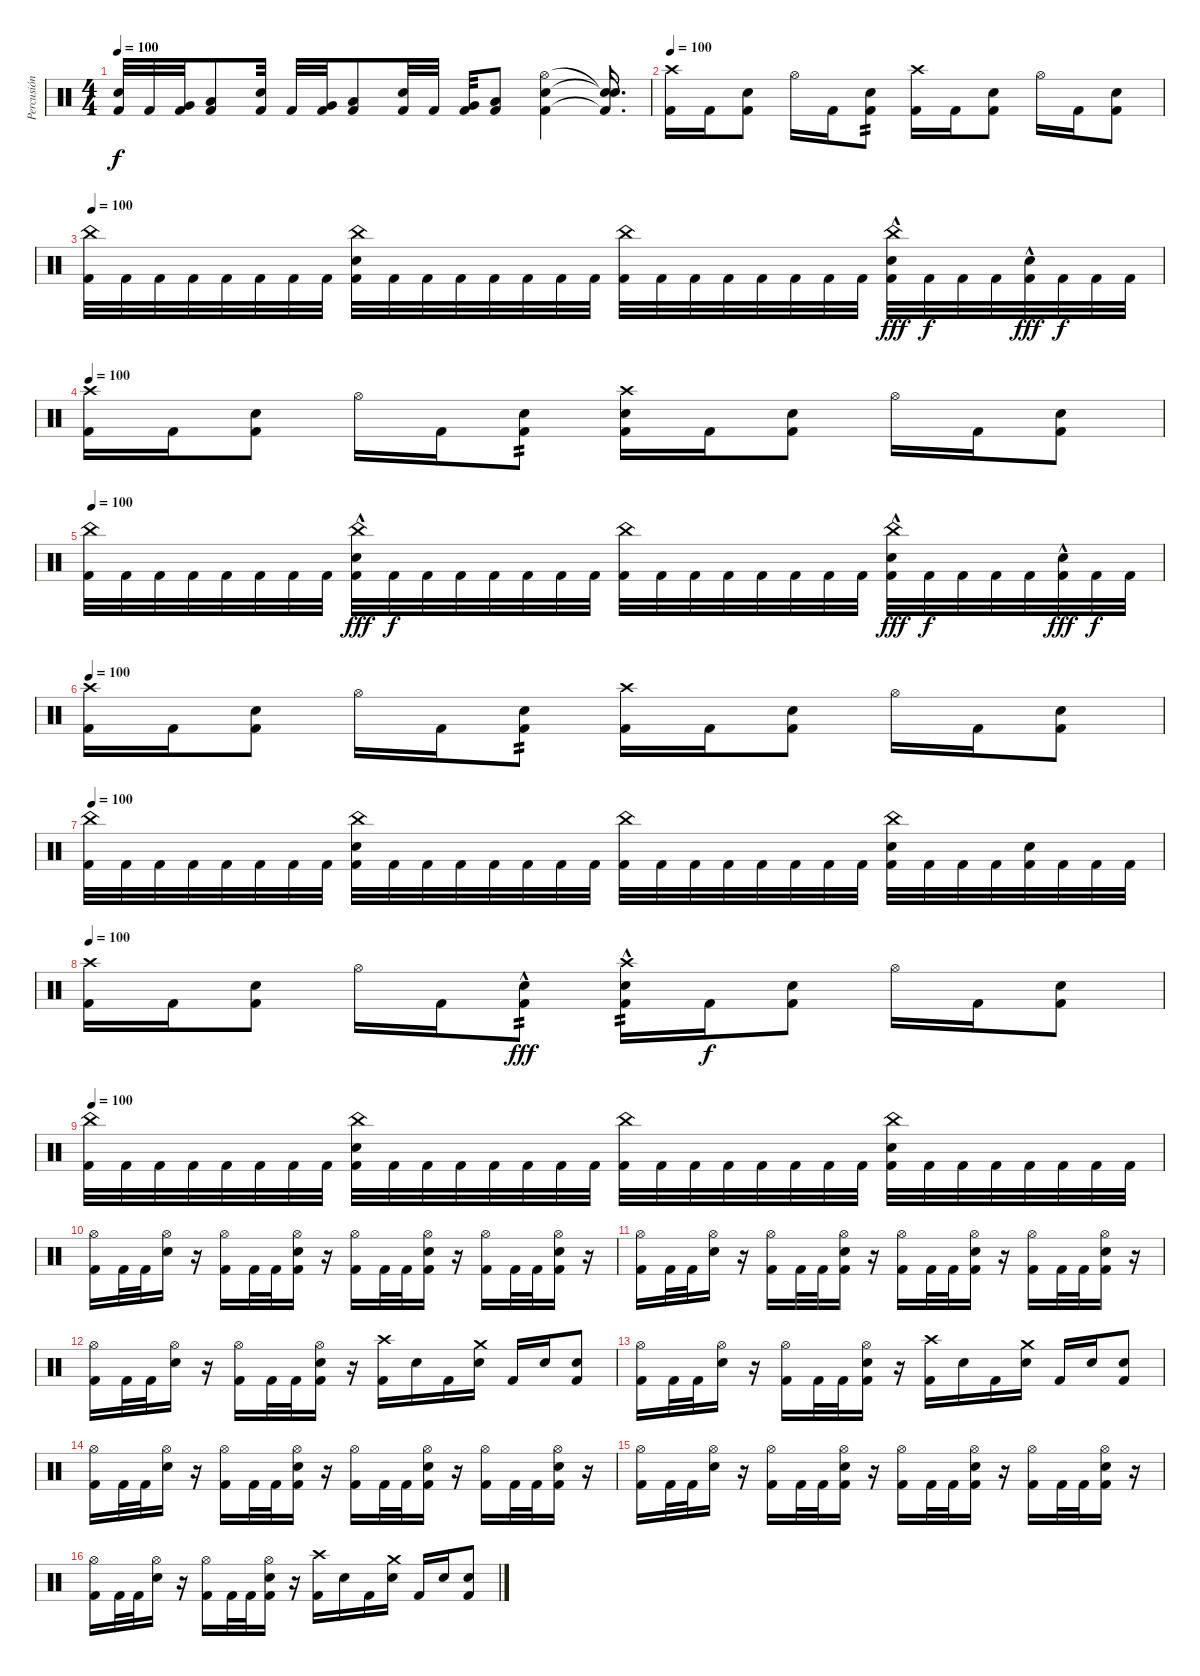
\track ("Percusión" "Percusión") {instrument percussion}
\staff {score}
\articulation defaults
\ts (4 4)
\tempo 100
\clef neutral
\ks c
("Electric Snare (hit)" "Kick (hit) 2").32{dy f} "Kick (hit) 2".32 ("Very Low Tom (hit)" "Kick (hit) 2").32 ("Low Floor Tom (hit)" "Kick (hit) 2").8 ("Electric Snare (hit)" "Kick (hit) 2").32 "Kick (hit) 2".32 ("Very Low Tom (hit)" "Kick (hit) 2").32 ("Low Floor Tom (hit)" "Kick (hit) 2").8 ("Electric Snare (hit)" "Kick (hit) 2").32 "Kick (hit) 2".32 ("Very Low Tom (hit)" "Kick (hit) 2").32 ("Low Floor Tom (hit)" "Kick (hit) 2").8 ("Hi-Hat (open)" "Electric Snare (hit)" "Kick (hit) 2").4 ("Snare (hit)"{t} "Snare (hit)"{t} "Kick (hit) 2"{t}).16{d} |
\tempo 100
("Crash high (hit)" "Kick (hit) 2").16 "Kick (hit) 2".16 ("Electric Snare (hit)" "Kick (hit) 2").8 "Hi-Hat (open)".16 "Kick (hit) 2".16 ("Electric Snare (hit)" "Kick (hit) 2").8{tp 2} ("Crash high (hit)" "Kick (hit) 2").16 "Kick (hit) 2".16 ("Electric Snare (hit)" "Kick (hit) 2").8 "Hi-Hat (open)".16 "Kick (hit) 2".16 ("Electric Snare (hit)" "Kick (hit) 2").8 |
\tempo 100
("China (hit)" "Kick (hit) 2").32 "Kick (hit) 2".32 "Kick (hit) 2".32 "Kick (hit) 2".32 "Kick (hit) 2".32 "Kick (hit) 2".32 "Kick (hit) 2".32 "Kick (hit) 2".32 ("China (hit)" "Electric Snare (hit)" "Kick (hit) 2").32 "Kick (hit) 2".32 "Kick (hit) 2".32 "Kick (hit) 2".32 "Kick (hit) 2".32 "Kick (hit) 2".32 "Kick (hit) 2".32 "Kick (hit) 2".32 ("China (hit)" "Kick (hit) 2").32 "Kick (hit) 2".32 "Kick (hit) 2".32 "Kick (hit) 2".32 "Kick (hit) 2".32 "Kick (hit) 2".32 "Kick (hit) 2".32 "Kick (hit) 2".32 ("China (hit)" "Electric Snare (hit)"{hac} "Kick (hit) 2").32{dy fff} "Kick (hit) 2".32{dy f} "Kick (hit) 2".32 "Kick (hit) 2".32 ("Electric Snare (hit)"{hac} "Kick (hit) 2").32{dy fff} "Kick (hit) 2".32{dy f} "Kick (hit) 2".32 "Kick (hit) 2".32 |
\tempo 100
("Crash high (hit)" "Kick (hit) 2").16 "Kick (hit) 2".16 ("Electric Snare (hit)" "Kick (hit) 2").8 "Hi-Hat (open)".16 "Kick (hit) 2".16 ("Electric Snare (hit)" "Kick (hit) 2").8{tp 2} ("Crash high (hit)" "Electric Snare (hit)" "Kick (hit) 2").16 "Kick (hit) 2".16 ("Electric Snare (hit)" "Kick (hit) 2").8 "Hi-Hat (open)".16 "Kick (hit) 2".16 ("Electric Snare (hit)" "Kick (hit) 2").8 |
\tempo 100
("China (hit)" "Kick (hit) 2").32 "Kick (hit) 2".32 "Kick (hit) 2".32 "Kick (hit) 2".32 "Kick (hit) 2".32 "Kick (hit) 2".32 "Kick (hit) 2".32 "Kick (hit) 2".32 ("China (hit)" "Electric Snare (hit)"{hac} "Kick (hit) 2").32{dy fff} "Kick (hit) 2".32{dy f} "Kick (hit) 2".32 "Kick (hit) 2".32 "Kick (hit) 2".32 "Kick (hit) 2".32 "Kick (hit) 2".32 "Kick (hit) 2".32 ("China (hit)" "Kick (hit) 2").32 "Kick (hit) 2".32 "Kick (hit) 2".32 "Kick (hit) 2".32 "Kick (hit) 2".32 "Kick (hit) 2".32 "Kick (hit) 2".32 "Kick (hit) 2".32 ("China (hit)" "Electric Snare (hit)"{hac} "Kick (hit) 2").32{dy fff} "Kick (hit) 2".32{dy f} "Kick (hit) 2".32 "Kick (hit) 2".32 "Kick (hit) 2".32 ("Electric Snare (hit)"{hac} "Kick (hit) 2").32{dy fff} "Kick (hit) 2".32{dy f} "Kick (hit) 2".32 |
\tempo 100
("Crash high (hit)" "Kick (hit) 2").16 "Kick (hit) 2".16 ("Electric Snare (hit)" "Kick (hit) 2").8 "Hi-Hat (open)".16 "Kick (hit) 2".16 ("Electric Snare (hit)" "Kick (hit) 2").8{tp 2} ("Crash high (hit)" "Kick (hit) 2").16 "Kick (hit) 2".16 ("Electric Snare (hit)" "Kick (hit) 2").8 "Hi-Hat (open)".16 "Kick (hit) 2".16 ("Electric Snare (hit)" "Kick (hit) 2").8 |
\tempo 100
("China (hit)" "Kick (hit) 2").32 "Kick (hit) 2".32 "Kick (hit) 2".32 "Kick (hit) 2".32 "Kick (hit) 2".32 "Kick (hit) 2".32 "Kick (hit) 2".32 "Kick (hit) 2".32 ("China (hit)" "Electric Snare (hit)" "Kick (hit) 2").32 "Kick (hit) 2".32 "Kick (hit) 2".32 "Kick (hit) 2".32 "Kick (hit) 2".32 "Kick (hit) 2".32 "Kick (hit) 2".32 "Kick (hit) 2".32 ("China (hit)" "Kick (hit) 2").32 "Kick (hit) 2".32 "Kick (hit) 2".32 "Kick (hit) 2".32 "Kick (hit) 2".32 "Kick (hit) 2".32 "Kick (hit) 2".32 "Kick (hit) 2".32 ("China (hit)" "Electric Snare (hit)" "Kick (hit) 2").32 "Kick (hit) 2".32 "Kick (hit) 2".32 "Kick (hit) 2".32 ("Electric Snare (hit)" "Kick (hit) 2").32 "Kick (hit) 2".32 "Kick (hit) 2".32 "Kick (hit) 2".32 |
\tempo 100
("Crash high (hit)" "Kick (hit) 2").16 "Kick (hit) 2".16 ("Electric Snare (hit)" "Kick (hit) 2").8 "Hi-Hat (open)".16 "Kick (hit) 2".16 ("Electric Snare (hit)"{hac} "Kick (hit) 2").8{tp 2 dy fff} ("Crash high (hit)" "Electric Snare (hit)"{hac} "Kick (hit) 2").16{tp 2} "Kick (hit) 2".16{dy f} ("Electric Snare (hit)" "Kick (hit) 2").8 "Hi-Hat (open)".16 "Kick (hit) 2".16 ("Electric Snare (hit)" "Kick (hit) 2").8 |
\tempo 100
("China (hit)" "Kick (hit) 2").32 "Kick (hit) 2".32 "Kick (hit) 2".32 "Kick (hit) 2".32 "Kick (hit) 2".32 "Kick (hit) 2".32 "Kick (hit) 2".32 "Kick (hit) 2".32 ("China (hit)" "Electric Snare (hit)" "Kick (hit) 2").32 "Kick (hit) 2".32 "Kick (hit) 2".32 "Kick (hit) 2".32 "Kick (hit) 2".32 "Kick (hit) 2".32 "Kick (hit) 2".32 "Kick (hit) 2".32 ("China (hit)" "Kick (hit) 2").32 "Kick (hit) 2".32 "Kick (hit) 2".32 "Kick (hit) 2".32 "Kick (hit) 2".32 "Kick (hit) 2".32 "Kick (hit) 2".32 "Kick (hit) 2".32 ("China (hit)" "Electric Snare (hit)" "Kick (hit) 2").32 "Kick (hit) 2".32 "Kick (hit) 2".32 "Kick (hit) 2".32 "Kick (hit) 2".32 "Kick (hit) 2".32 "Kick (hit) 2".32 "Kick (hit) 2".32 |
("Hi-Hat (open)" "Kick (hit) 2").16 "Kick (hit) 2".32 "Kick (hit) 2".32 ("Hi-Hat (open)" "Electric Snare (hit)").16 r.16 ("Hi-Hat (open)" "Kick (hit) 2").16 "Kick (hit) 2".32 "Kick (hit) 2".32 ("Hi-Hat (open)" "Electric Snare (hit)" "Kick (hit) 2").16 r.16 ("Hi-Hat (open)" "Kick (hit) 2").16 "Kick (hit) 2".32 "Kick (hit) 2".32 ("Hi-Hat (open)" "Electric Snare (hit)" "Kick (hit) 2").16 r.16 ("Hi-Hat (open)" "Kick (hit) 2").16 "Kick (hit) 2".32 "Kick (hit) 2".32 ("Hi-Hat (open)" "Electric Snare (hit)" "Kick (hit) 2").16 r.16 |
("Hi-Hat (open)" "Kick (hit) 2").16 "Kick (hit) 2".32 "Kick (hit) 2".32 ("Hi-Hat (open)" "Electric Snare (hit)").16 r.16 ("Hi-Hat (open)" "Kick (hit) 2").16 "Kick (hit) 2".32 "Kick (hit) 2".32 ("Hi-Hat (open)" "Electric Snare (hit)" "Kick (hit) 2").16 r.16 ("Hi-Hat (open)" "Kick (hit) 2").16 "Kick (hit) 2".32 "Kick (hit) 2".32 ("Hi-Hat (open)" "Electric Snare (hit)" "Kick (hit) 2").16 r.16 ("Hi-Hat (open)" "Kick (hit) 2").16 "Kick (hit) 2".32 "Kick (hit) 2".32 ("Hi-Hat (open)" "Electric Snare (hit)" "Kick (hit) 2").16 r.16 |
("Hi-Hat (open)" "Kick (hit) 2").16 "Kick (hit) 2".32 "Kick (hit) 2".32 ("Hi-Hat (open)" "Electric Snare (hit)").16 r.16 ("Hi-Hat (open)" "Kick (hit) 2").16 "Kick (hit) 2".32 "Kick (hit) 2".32 ("Hi-Hat (open)" "Electric Snare (hit)" "Kick (hit) 2").16 r.16 ("Crash high (hit)" "Kick (hit) 2").16 "Electric Snare (hit)".16 "Kick (hit) 2".16 ("Crash medium (hit)" "Electric Snare (hit)").16 "Kick (hit) 2".16 "Electric Snare (hit)".16 ("Electric Snare (hit)" "Kick (hit) 2").8 |
("Hi-Hat (open)" "Kick (hit) 2").16 "Kick (hit) 2".32 "Kick (hit) 2".32 ("Hi-Hat (open)" "Electric Snare (hit)").16 r.16 ("Hi-Hat (open)" "Kick (hit) 2").16 "Kick (hit) 2".32 "Kick (hit) 2".32 ("Hi-Hat (open)" "Electric Snare (hit)" "Kick (hit) 2").16 r.16 ("Crash high (hit)" "Kick (hit) 2").16 "Electric Snare (hit)".16 "Kick (hit) 2".16 ("Crash medium (hit)" "Electric Snare (hit)").16 "Kick (hit) 2".16 "Electric Snare (hit)".16 ("Electric Snare (hit)" "Kick (hit) 2").8 |
("Hi-Hat (open)" "Kick (hit) 2").16 "Kick (hit) 2".32 "Kick (hit) 2".32 ("Hi-Hat (open)" "Electric Snare (hit)").16 r.16 ("Hi-Hat (open)" "Kick (hit) 2").16 "Kick (hit) 2".32 "Kick (hit) 2".32 ("Hi-Hat (open)" "Electric Snare (hit)" "Kick (hit) 2").16 r.16 ("Hi-Hat (open)" "Kick (hit) 2").16 "Kick (hit) 2".32 "Kick (hit) 2".32 ("Hi-Hat (open)" "Electric Snare (hit)" "Kick (hit) 2").16 r.16 ("Hi-Hat (open)" "Kick (hit) 2").16 "Kick (hit) 2".32 "Kick (hit) 2".32 ("Hi-Hat (open)" "Electric Snare (hit)" "Kick (hit) 2").16 r.16 |
("Hi-Hat (open)" "Kick (hit) 2").16 "Kick (hit) 2".32 "Kick (hit) 2".32 ("Hi-Hat (open)" "Electric Snare (hit)").16 r.16 ("Hi-Hat (open)" "Kick (hit) 2").16 "Kick (hit) 2".32 "Kick (hit) 2".32 ("Hi-Hat (open)" "Electric Snare (hit)" "Kick (hit) 2").16 r.16 ("Hi-Hat (open)" "Kick (hit) 2").16 "Kick (hit) 2".32 "Kick (hit) 2".32 ("Hi-Hat (open)" "Electric Snare (hit)" "Kick (hit) 2").16 r.16 ("Hi-Hat (open)" "Kick (hit) 2").16 "Kick (hit) 2".32 "Kick (hit) 2".32 ("Hi-Hat (open)" "Electric Snare (hit)" "Kick (hit) 2").16 r.16 |
("Hi-Hat (open)" "Kick (hit) 2").16 "Kick (hit) 2".32 "Kick (hit) 2".32 ("Hi-Hat (open)" "Electric Snare (hit)").16 r.16 ("Hi-Hat (open)" "Kick (hit) 2").16 "Kick (hit) 2".32 "Kick (hit) 2".32 ("Hi-Hat (open)" "Electric Snare (hit)" "Kick (hit) 2").16 r.16 ("Crash high (hit)" "Kick (hit) 2").16 "Electric Snare (hit)".16 "Kick (hit) 2".16 ("Crash medium (hit)" "Electric Snare (hit)").16 "Kick (hit) 2".16 "Electric Snare (hit)".16 ("Electric Snare (hit)" "Kick (hit) 2").8
